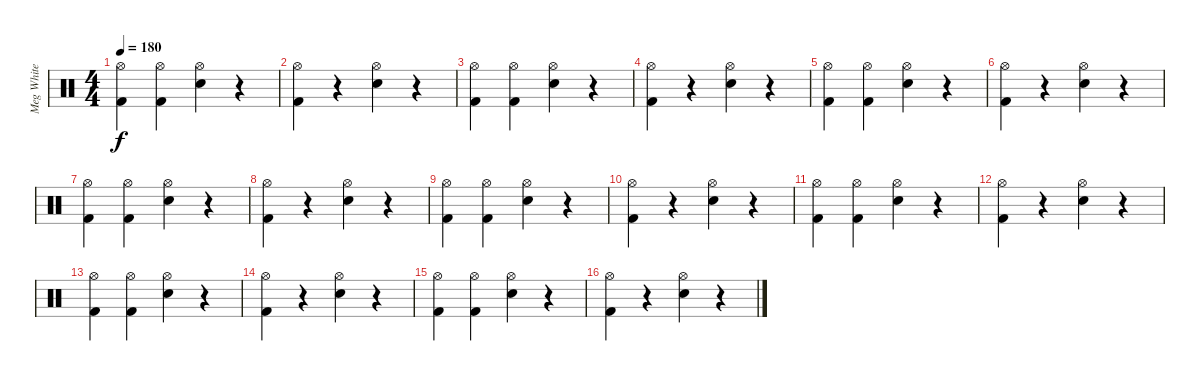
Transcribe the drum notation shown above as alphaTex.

\track ("Meg White" "Meg White") {instrument percussion}
\staff {score}
\articulation defaults
\ts (4 4)
\tempo 180
\clef neutral
\ks c
("Hi-Hat (open)" "Kick (hit) 2").4{dy f} ("Hi-Hat (open)" "Kick (hit) 2").4 ("Hi-Hat (open)" "Snare (hit) 2").4 r.4 |
("Hi-Hat (open)" "Kick (hit) 2").4 r.4 ("Hi-Hat (open)" "Snare (hit) 2").4 r.4 |
("Hi-Hat (open)" "Kick (hit) 2").4 ("Hi-Hat (open)" "Kick (hit) 2").4 ("Hi-Hat (open)" "Snare (hit) 2").4 r.4 |
("Hi-Hat (open)" "Kick (hit) 2").4 r.4 ("Hi-Hat (open)" "Snare (hit) 2").4 r.4 |
("Hi-Hat (open)" "Kick (hit) 2").4 ("Hi-Hat (open)" "Kick (hit) 2").4 ("Hi-Hat (open)" "Snare (hit) 2").4 r.4 |
("Hi-Hat (open)" "Kick (hit) 2").4 r.4 ("Hi-Hat (open)" "Snare (hit) 2").4 r.4 |
("Hi-Hat (open)" "Kick (hit) 2").4 ("Hi-Hat (open)" "Kick (hit) 2").4 ("Hi-Hat (open)" "Snare (hit) 2").4 r.4 |
("Hi-Hat (open)" "Kick (hit) 2").4 r.4 ("Hi-Hat (open)" "Snare (hit) 2").4 r.4 |
("Hi-Hat (open)" "Kick (hit) 2").4 ("Hi-Hat (open)" "Kick (hit) 2").4 ("Hi-Hat (open)" "Snare (hit) 2").4 r.4 |
("Hi-Hat (open)" "Kick (hit) 2").4 r.4 ("Hi-Hat (open)" "Snare (hit) 2").4 r.4 |
("Hi-Hat (open)" "Kick (hit) 2").4 ("Hi-Hat (open)" "Kick (hit) 2").4 ("Hi-Hat (open)" "Snare (hit) 2").4 r.4 |
("Hi-Hat (open)" "Kick (hit) 2").4 r.4 ("Hi-Hat (open)" "Snare (hit) 2").4 r.4 |
("Hi-Hat (open)" "Kick (hit) 2").4 ("Hi-Hat (open)" "Kick (hit) 2").4 ("Hi-Hat (open)" "Snare (hit) 2").4 r.4 |
("Hi-Hat (open)" "Kick (hit) 2").4 r.4 ("Hi-Hat (open)" "Snare (hit) 2").4 r.4 |
("Hi-Hat (open)" "Kick (hit) 2").4 ("Hi-Hat (open)" "Kick (hit) 2").4 ("Hi-Hat (open)" "Snare (hit) 2").4 r.4 |
("Hi-Hat (open)" "Kick (hit) 2").4 r.4 ("Hi-Hat (open)" "Snare (hit) 2").4 r.4
